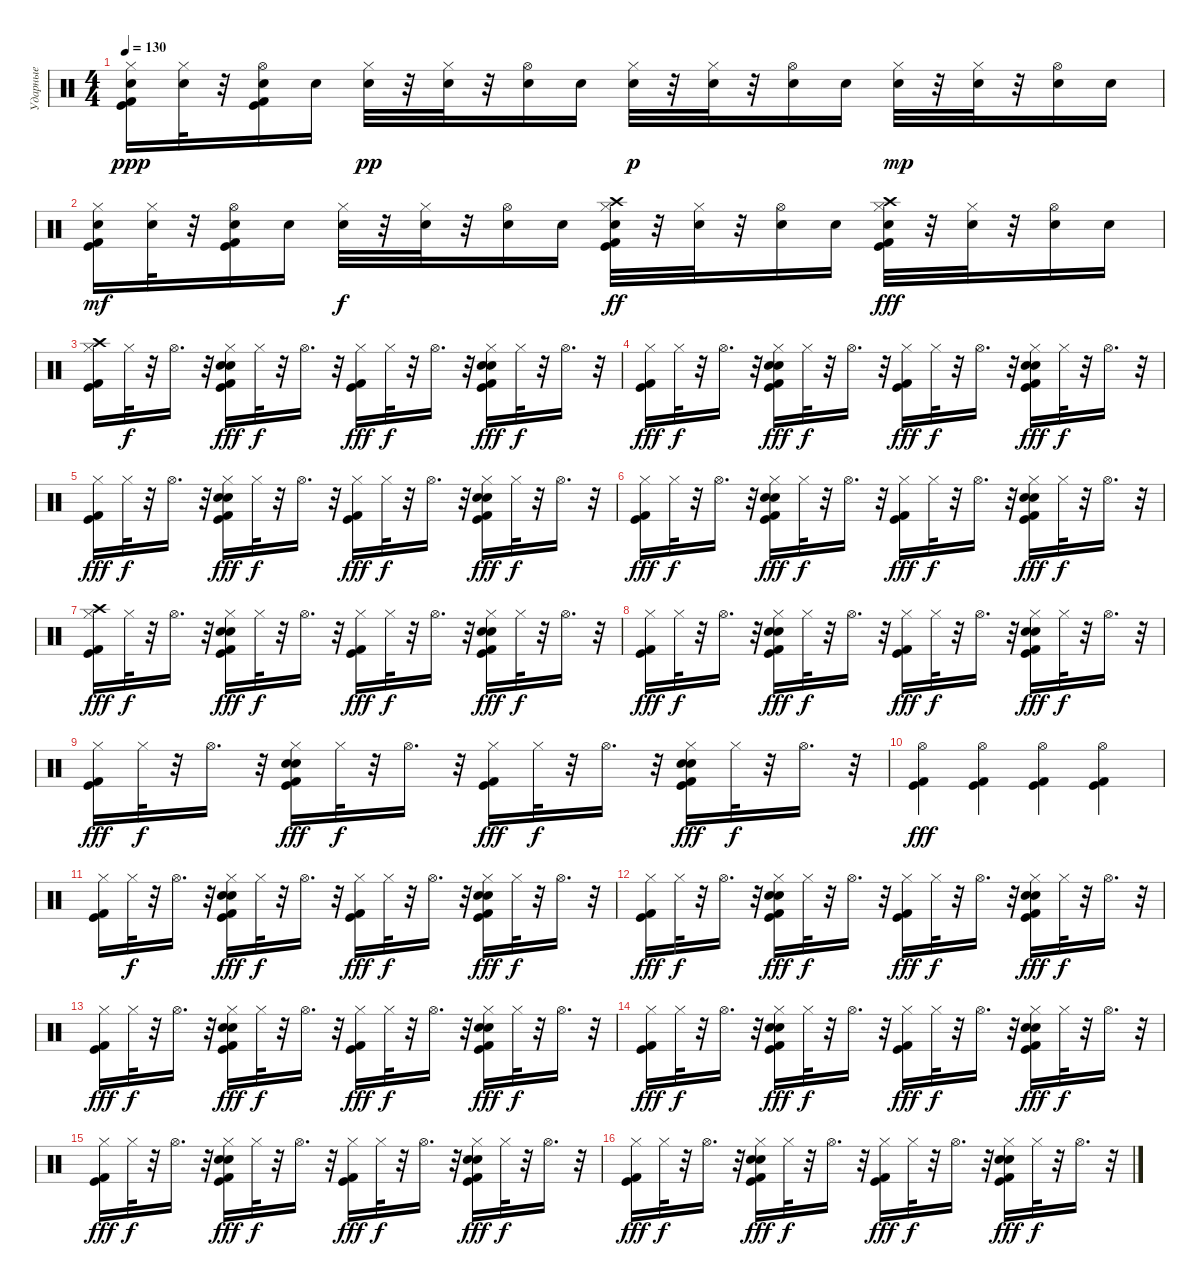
\track ("Ударные" "Ударные") {instrument percussion}
\staff {score}
\articulation defaults
\ts (4 4)
\tempo 130
\clef neutral
\ks c
("Hi-Hat (closed)" "Kick (hit) 2" "Kick (hit)" "Electric Snare (hit)").16{dy ppp} ("Hi-Hat (closed)" "Electric Snare (hit)").32 r.32 ("Hi-Hat (open)" "Kick (hit)" "Kick (hit) 2" "Electric Snare (hit)").16 "Electric Snare (hit)".16 ("Hi-Hat (closed)" "Electric Snare (hit)").32{dy pp} r.32 ("Hi-Hat (closed)" "Electric Snare (hit)").32 r.32 ("Hi-Hat (open)" "Electric Snare (hit)").16 "Electric Snare (hit)".16 ("Hi-Hat (closed)" "Electric Snare (hit)").32{dy p} r.32 ("Hi-Hat (closed)" "Electric Snare (hit)").32 r.32 ("Hi-Hat (open)" "Electric Snare (hit)").16 "Electric Snare (hit)".16 ("Hi-Hat (closed)" "Electric Snare (hit)").32{dy mp} r.32 ("Hi-Hat (closed)" "Electric Snare (hit)").32 r.32 ("Hi-Hat (open)" "Electric Snare (hit)").16 "Electric Snare (hit)".16 |
("Hi-Hat (closed)" "Kick (hit) 2" "Kick (hit)" "Electric Snare (hit)").16{dy mf} ("Hi-Hat (closed)" "Electric Snare (hit)").32 r.32 ("Hi-Hat (open)" "Kick (hit)" "Kick (hit) 2" "Electric Snare (hit)").16 "Electric Snare (hit)".16 ("Hi-Hat (closed)" "Electric Snare (hit)").32{dy f} r.32 ("Hi-Hat (closed)" "Electric Snare (hit)").32 r.32 ("Hi-Hat (open)" "Electric Snare (hit)").16 "Electric Snare (hit)".16 ("Hi-Hat (closed)" "Kick (hit)" "Kick (hit) 2" "Electric Snare (hit)" "Crash high (hit)").32{dy ff} r.32 ("Hi-Hat (closed)" "Electric Snare (hit)").32 r.32 ("Hi-Hat (open)" "Electric Snare (hit)").16 "Electric Snare (hit)".16 ("Hi-Hat (closed)" "Kick (hit)" "Kick (hit) 2" "Electric Snare (hit)" "Crash high (hit)").32{dy fff} r.32 ("Hi-Hat (closed)" "Electric Snare (hit)").32 r.32 ("Hi-Hat (open)" "Electric Snare (hit)").16 "Electric Snare (hit)".16 |
("Crash high (hit)" "Hi-Hat (closed)" "Kick (hit) 2" "Kick (hit)").16 "Hi-Hat (closed)".32{dy f} r.32 "Hi-Hat (open)".16{d} r.32 ("Hi-Hat (closed)" "Kick (hit) 2" "Kick (hit)" "Hand Clap (hit)" "Hand Clap (hit)").16{dy fff} "Hi-Hat (closed)".32{dy f} r.32 "Hi-Hat (open)".16{d} r.32 ("Hi-Hat (closed)" "Kick (hit) 2" "Kick (hit)").16{dy fff} "Hi-Hat (closed)".32{dy f} r.32 "Hi-Hat (open)".16{d} r.32 ("Hi-Hat (closed)" "Kick (hit) 2" "Kick (hit)" "Hand Clap (hit)" "Hand Clap (hit)").16{dy fff} "Hi-Hat (closed)".32{dy f} r.32 "Hi-Hat (open)".16{d} r.32 |
("Hi-Hat (closed)" "Kick (hit) 2" "Kick (hit)").16{dy fff} "Hi-Hat (closed)".32{dy f} r.32 "Hi-Hat (open)".16{d} r.32 ("Hi-Hat (closed)" "Kick (hit) 2" "Kick (hit)" "Hand Clap (hit)" "Hand Clap (hit)").16{dy fff} "Hi-Hat (closed)".32{dy f} r.32 "Hi-Hat (open)".16{d} r.32 ("Hi-Hat (closed)" "Kick (hit) 2" "Kick (hit)").16{dy fff} "Hi-Hat (closed)".32{dy f} r.32 "Hi-Hat (open)".16{d} r.32 ("Hi-Hat (closed)" "Kick (hit) 2" "Kick (hit)" "Hand Clap (hit)" "Hand Clap (hit)").16{dy fff} "Hi-Hat (closed)".32{dy f} r.32 "Hi-Hat (open)".16{d} r.32 |
("Hi-Hat (closed)" "Kick (hit) 2" "Kick (hit)").16{dy fff} "Hi-Hat (closed)".32{dy f} r.32 "Hi-Hat (open)".16{d} r.32 ("Hi-Hat (closed)" "Kick (hit) 2" "Kick (hit)" "Hand Clap (hit)" "Hand Clap (hit)").16{dy fff} "Hi-Hat (closed)".32{dy f} r.32 "Hi-Hat (open)".16{d} r.32 ("Hi-Hat (closed)" "Kick (hit) 2" "Kick (hit)").16{dy fff} "Hi-Hat (closed)".32{dy f} r.32 "Hi-Hat (open)".16{d} r.32 ("Hi-Hat (closed)" "Kick (hit) 2" "Kick (hit)" "Hand Clap (hit)" "Hand Clap (hit)").16{dy fff} "Hi-Hat (closed)".32{dy f} r.32 "Hi-Hat (open)".16{d} r.32 |
("Hi-Hat (closed)" "Kick (hit) 2" "Kick (hit)").16{dy fff} "Hi-Hat (closed)".32{dy f} r.32 "Hi-Hat (open)".16{d} r.32 ("Hi-Hat (closed)" "Kick (hit) 2" "Kick (hit)" "Hand Clap (hit)" "Hand Clap (hit)").16{dy fff} "Hi-Hat (closed)".32{dy f} r.32 "Hi-Hat (open)".16{d} r.32 ("Hi-Hat (closed)" "Kick (hit) 2" "Kick (hit)").16{dy fff} "Hi-Hat (closed)".32{dy f} r.32 "Hi-Hat (open)".16{d} r.32 ("Hi-Hat (closed)" "Kick (hit) 2" "Kick (hit)" "Hand Clap (hit)" "Hand Clap (hit)").16{dy fff} "Hi-Hat (closed)".32{dy f} r.32 "Hi-Hat (open)".16{d} r.32 |
("Crash high (hit)" "Hi-Hat (closed)" "Kick (hit) 2" "Kick (hit)").16{dy fff} "Hi-Hat (closed)".32{dy f} r.32 "Hi-Hat (open)".16{d} r.32 ("Hi-Hat (closed)" "Kick (hit) 2" "Kick (hit)" "Hand Clap (hit)" "Hand Clap (hit)").16{dy fff} "Hi-Hat (closed)".32{dy f} r.32 "Hi-Hat (open)".16{d} r.32 ("Hi-Hat (closed)" "Kick (hit) 2" "Kick (hit)").16{dy fff} "Hi-Hat (closed)".32{dy f} r.32 "Hi-Hat (open)".16{d} r.32 ("Hi-Hat (closed)" "Kick (hit) 2" "Kick (hit)" "Hand Clap (hit)" "Hand Clap (hit)").16{dy fff} "Hi-Hat (closed)".32{dy f} r.32 "Hi-Hat (open)".16{d} r.32 |
("Hi-Hat (closed)" "Kick (hit) 2" "Kick (hit)").16{dy fff} "Hi-Hat (closed)".32{dy f} r.32 "Hi-Hat (open)".16{d} r.32 ("Hi-Hat (closed)" "Kick (hit) 2" "Kick (hit)" "Hand Clap (hit)" "Hand Clap (hit)").16{dy fff} "Hi-Hat (closed)".32{dy f} r.32 "Hi-Hat (open)".16{d} r.32 ("Hi-Hat (closed)" "Kick (hit) 2" "Kick (hit)").16{dy fff} "Hi-Hat (closed)".32{dy f} r.32 "Hi-Hat (open)".16{d} r.32 ("Hi-Hat (closed)" "Kick (hit) 2" "Kick (hit)" "Hand Clap (hit)" "Hand Clap (hit)").16{dy fff} "Hi-Hat (closed)".32{dy f} r.32 "Hi-Hat (open)".16{d} r.32 |
("Hi-Hat (closed)" "Kick (hit) 2" "Kick (hit)").16{dy fff} "Hi-Hat (closed)".32{dy f} r.32 "Hi-Hat (open)".16{d} r.32 ("Hi-Hat (closed)" "Kick (hit) 2" "Kick (hit)" "Hand Clap (hit)" "Hand Clap (hit)").16{dy fff} "Hi-Hat (closed)".32{dy f} r.32 "Hi-Hat (open)".16{d} r.32 ("Hi-Hat (closed)" "Kick (hit) 2" "Kick (hit)").16{dy fff} "Hi-Hat (closed)".32{dy f} r.32 "Hi-Hat (open)".16{d} r.32 ("Hi-Hat (closed)" "Kick (hit) 2" "Kick (hit)" "Hand Clap (hit)" "Hand Clap (hit)").16{dy fff} "Hi-Hat (closed)".32{dy f} r.32 "Hi-Hat (open)".16{d} r.32 |
("Hi-Hat (open)" "Kick (hit) 2" "Kick (hit)").4{dy fff} ("Hi-Hat (open)" "Kick (hit) 2" "Kick (hit)").4 ("Hi-Hat (open)" "Kick (hit) 2" "Kick (hit)").4 ("Hi-Hat (open)" "Kick (hit) 2" "Kick (hit)").4 |
("Hi-Hat (closed)" "Kick (hit) 2" "Kick (hit)").16 "Hi-Hat (closed)".32{dy f} r.32 "Hi-Hat (open)".16{d} r.32 ("Hi-Hat (closed)" "Kick (hit) 2" "Kick (hit)" "Hand Clap (hit)" "Hand Clap (hit)").16{dy fff} "Hi-Hat (closed)".32{dy f} r.32 "Hi-Hat (open)".16{d} r.32 ("Hi-Hat (closed)" "Kick (hit) 2" "Kick (hit)").16{dy fff} "Hi-Hat (closed)".32{dy f} r.32 "Hi-Hat (open)".16{d} r.32 ("Hi-Hat (closed)" "Kick (hit) 2" "Kick (hit)" "Hand Clap (hit)" "Hand Clap (hit)").16{dy fff} "Hi-Hat (closed)".32{dy f} r.32 "Hi-Hat (open)".16{d} r.32 |
("Hi-Hat (closed)" "Kick (hit) 2" "Kick (hit)").16{dy fff} "Hi-Hat (closed)".32{dy f} r.32 "Hi-Hat (open)".16{d} r.32 ("Hi-Hat (closed)" "Kick (hit) 2" "Kick (hit)" "Hand Clap (hit)" "Hand Clap (hit)").16{dy fff} "Hi-Hat (closed)".32{dy f} r.32 "Hi-Hat (open)".16{d} r.32 ("Hi-Hat (closed)" "Kick (hit) 2" "Kick (hit)").16{dy fff} "Hi-Hat (closed)".32{dy f} r.32 "Hi-Hat (open)".16{d} r.32 ("Hi-Hat (closed)" "Kick (hit) 2" "Kick (hit)" "Hand Clap (hit)" "Hand Clap (hit)").16{dy fff} "Hi-Hat (closed)".32{dy f} r.32 "Hi-Hat (open)".16{d} r.32 |
("Hi-Hat (closed)" "Kick (hit) 2" "Kick (hit)").16{dy fff} "Hi-Hat (closed)".32{dy f} r.32 "Hi-Hat (open)".16{d} r.32 ("Hi-Hat (closed)" "Kick (hit) 2" "Kick (hit)" "Hand Clap (hit)" "Hand Clap (hit)").16{dy fff} "Hi-Hat (closed)".32{dy f} r.32 "Hi-Hat (open)".16{d} r.32 ("Hi-Hat (closed)" "Kick (hit) 2" "Kick (hit)").16{dy fff} "Hi-Hat (closed)".32{dy f} r.32 "Hi-Hat (open)".16{d} r.32 ("Hi-Hat (closed)" "Kick (hit) 2" "Kick (hit)" "Hand Clap (hit)" "Hand Clap (hit)").16{dy fff} "Hi-Hat (closed)".32{dy f} r.32 "Hi-Hat (open)".16{d} r.32 |
("Hi-Hat (closed)" "Kick (hit) 2" "Kick (hit)").16{dy fff} "Hi-Hat (closed)".32{dy f} r.32 "Hi-Hat (open)".16{d} r.32 ("Hi-Hat (closed)" "Kick (hit) 2" "Kick (hit)" "Hand Clap (hit)" "Hand Clap (hit)").16{dy fff} "Hi-Hat (closed)".32{dy f} r.32 "Hi-Hat (open)".16{d} r.32 ("Hi-Hat (closed)" "Kick (hit) 2" "Kick (hit)").16{dy fff} "Hi-Hat (closed)".32{dy f} r.32 "Hi-Hat (open)".16{d} r.32 ("Hi-Hat (closed)" "Kick (hit) 2" "Kick (hit)" "Hand Clap (hit)" "Hand Clap (hit)").16{dy fff} "Hi-Hat (closed)".32{dy f} r.32 "Hi-Hat (open)".16{d} r.32 |
("Hi-Hat (closed)" "Kick (hit) 2" "Kick (hit)").16{dy fff} "Hi-Hat (closed)".32{dy f} r.32 "Hi-Hat (open)".16{d} r.32 ("Hi-Hat (closed)" "Kick (hit) 2" "Kick (hit)" "Hand Clap (hit)" "Hand Clap (hit)").16{dy fff} "Hi-Hat (closed)".32{dy f} r.32 "Hi-Hat (open)".16{d} r.32 ("Hi-Hat (closed)" "Kick (hit) 2" "Kick (hit)").16{dy fff} "Hi-Hat (closed)".32{dy f} r.32 "Hi-Hat (open)".16{d} r.32 ("Hi-Hat (closed)" "Kick (hit) 2" "Kick (hit)" "Hand Clap (hit)" "Hand Clap (hit)").16{dy fff} "Hi-Hat (closed)".32{dy f} r.32 "Hi-Hat (open)".16{d} r.32 |
("Hi-Hat (closed)" "Kick (hit) 2" "Kick (hit)").16{dy fff} "Hi-Hat (closed)".32{dy f} r.32 "Hi-Hat (open)".16{d} r.32 ("Hi-Hat (closed)" "Kick (hit) 2" "Kick (hit)" "Hand Clap (hit)" "Hand Clap (hit)").16{dy fff} "Hi-Hat (closed)".32{dy f} r.32 "Hi-Hat (open)".16{d} r.32 ("Hi-Hat (closed)" "Kick (hit) 2" "Kick (hit)").16{dy fff} "Hi-Hat (closed)".32{dy f} r.32 "Hi-Hat (open)".16{d} r.32 ("Hi-Hat (closed)" "Kick (hit) 2" "Kick (hit)" "Hand Clap (hit)" "Hand Clap (hit)").16{dy fff} "Hi-Hat (closed)".32{dy f} r.32 "Hi-Hat (open)".16{d} r.32
